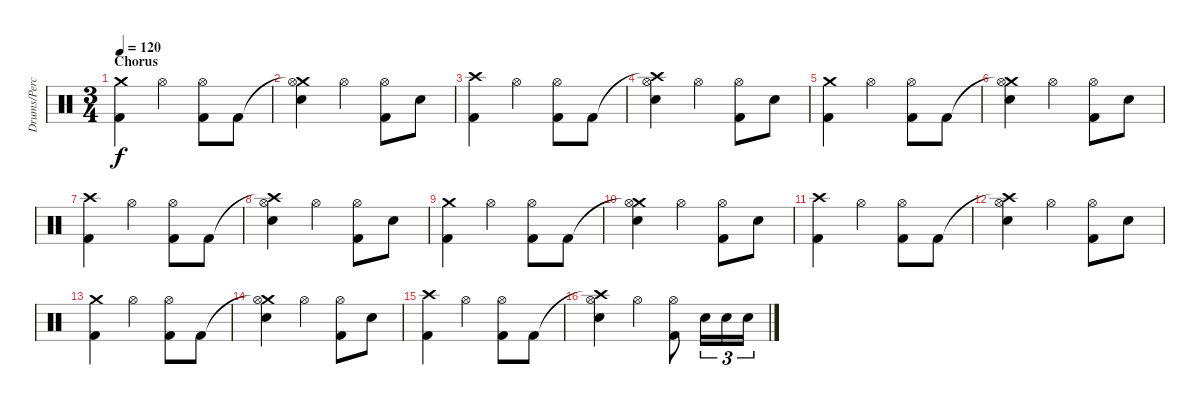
\track ("Drums/Percussion" "Drums/Perc") {instrument percussion}
\staff {score}
\articulation defaults
\ts (3 4)
\section ("" "Chorus")
\tempo 120
\clef neutral
\ks c
("Crash medium (hit)" "Kick (hit) 2").4{dy f} "Hi-Hat (open)".4 ("Hi-Hat (open)" "Kick (hit) 2").8 "Kick (hit) 2".8 |
("Crash medium (hit)"{t} "Hi-Hat (open)" "Snare (hit) 2").4 "Hi-Hat (open)".4 ("Hi-Hat (open)" "Kick (hit) 2").8 "Snare (hit) 2".8 |
("Crash high (hit)" "Kick (hit) 2").4 "Hi-Hat (open)".4 ("Hi-Hat (open)" "Kick (hit) 2").8 "Kick (hit) 2".8 |
("Crash high (hit)"{t} "Hi-Hat (open)" "Snare (hit) 2").4 "Hi-Hat (open)".4 ("Hi-Hat (open)" "Kick (hit) 2").8 "Snare (hit) 2".8 |
("Crash medium (hit)" "Kick (hit) 2").4 "Hi-Hat (open)".4 ("Hi-Hat (open)" "Kick (hit) 2").8 "Kick (hit) 2".8 |
("Crash medium (hit)"{t} "Hi-Hat (open)" "Snare (hit) 2").4 "Hi-Hat (open)".4 ("Hi-Hat (open)" "Kick (hit) 2").8 "Snare (hit) 2".8 |
("Crash high (hit)" "Kick (hit) 2").4 "Hi-Hat (open)".4 ("Hi-Hat (open)" "Kick (hit) 2").8 "Kick (hit) 2".8 |
("Crash high (hit)"{t} "Hi-Hat (open)" "Snare (hit) 2").4 "Hi-Hat (open)".4 ("Hi-Hat (open)" "Kick (hit) 2").8 "Snare (hit) 2".8 |
("Crash medium (hit)" "Kick (hit) 2").4 "Hi-Hat (open)".4 ("Hi-Hat (open)" "Kick (hit) 2").8 "Kick (hit) 2".8 |
("Crash medium (hit)"{t} "Hi-Hat (open)" "Snare (hit) 2").4 "Hi-Hat (open)".4 ("Hi-Hat (open)" "Kick (hit) 2").8 "Snare (hit) 2".8 |
("Crash high (hit)" "Kick (hit) 2").4 "Hi-Hat (open)".4 ("Hi-Hat (open)" "Kick (hit) 2").8 "Kick (hit) 2".8 |
("Crash high (hit)"{t} "Hi-Hat (open)" "Snare (hit) 2").4 "Hi-Hat (open)".4 ("Hi-Hat (open)" "Kick (hit) 2").8 "Snare (hit) 2".8 |
("Crash medium (hit)" "Kick (hit) 2").4 "Hi-Hat (open)".4 ("Hi-Hat (open)" "Kick (hit) 2").8 "Kick (hit) 2".8 |
("Crash medium (hit)"{t} "Hi-Hat (open)" "Snare (hit) 2").4 "Hi-Hat (open)".4 ("Hi-Hat (open)" "Kick (hit) 2").8 "Snare (hit) 2".8 |
("Crash high (hit)" "Kick (hit) 2").4 "Hi-Hat (open)".4 ("Hi-Hat (open)" "Kick (hit) 2").8 "Kick (hit) 2".8 |
("Crash high (hit)"{t} "Hi-Hat (open)" "Snare (hit) 2").4 "Hi-Hat (open)".4 ("Hi-Hat (open)" "Kick (hit) 2").8 "Snare (hit) 2".16{tu (3 2)} "Snare (hit) 2".16{tu (3 2)} "Snare (hit) 2".16{tu (3 2)}
